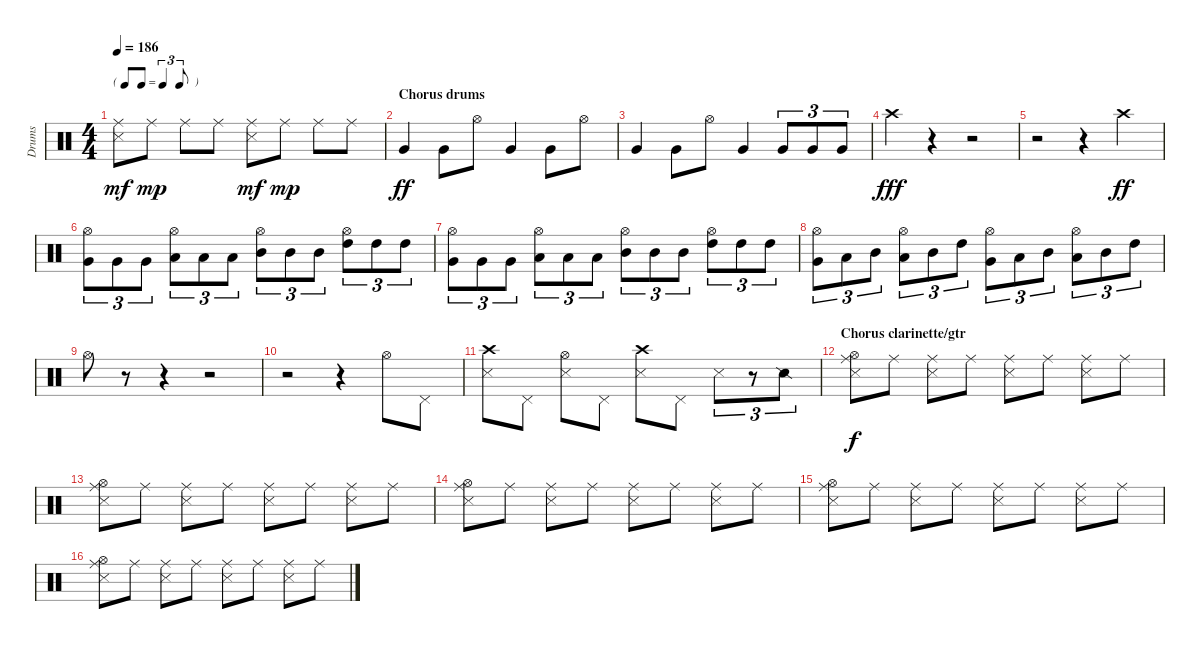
\track ("Drums" "Drums") {instrument percussion}
\staff {score}
\articulation defaults
\ts (4 4)
\tf triplet8th
\tempo 186
\clef neutral
\ks c
("Ride (middle)" "Snare (side stick) 3").8{dy mf} "Ride (middle)".8{dy mp} "Ride (middle)".8 "Ride (middle)".8 ("Ride (middle)" "Snare (side stick) 3").8{dy mf} "Ride (middle)".8{dy mp} "Ride (middle)".8 "Ride (middle)".8 |
\section ("" "Chorus drums")
"Very Low Tom (hit)".4{dy ff} "Very Low Tom (hit)".8 "Hi-Hat (open)".8 "Very Low Tom (hit)".4 "Very Low Tom (hit)".8 "Hi-Hat (open)".8 |
"Very Low Tom (hit)".4 "Very Low Tom (hit)".8 "Hi-Hat (open)".8 "Very Low Tom (hit)".4 "Very Low Tom (hit)".8{tu (3 2)} "Very Low Tom (hit)".8{tu (3 2)} "Very Low Tom (hit)".8{tu (3 2)} |
"Crash high (hit)".4{dy fff} r.4 r.2 |
r.2 r.4 "Crash high (hit)".4{dy ff} |
("Hi-Hat (open)" "Very Low Tom (hit)").8{tu (3 2)} "Very Low Tom (hit)".8{tu (3 2)} "Very Low Tom (hit)".8{tu (3 2)} ("Hi-Hat (open)" "Low Tom (hit)").8{tu (3 2)} "Low Tom (hit)".8{tu (3 2)} "Low Tom (hit)".8{tu (3 2)} ("Hi-Hat (open)" "Mid Tom (hit)").8{tu (3 2)} "Mid Tom (hit)".8{tu (3 2)} "Mid Tom (hit)".8{tu (3 2)} ("Hi-Hat (open)" "High Tom (hit)").8{tu (3 2)} "High Tom (hit)".8{tu (3 2)} "High Tom (hit)".8{tu (3 2)} |
("Hi-Hat (open)" "Very Low Tom (hit)").8{tu (3 2)} "Very Low Tom (hit)".8{tu (3 2)} "Very Low Tom (hit)".8{tu (3 2)} ("Hi-Hat (open)" "Low Tom (hit)").8{tu (3 2)} "Low Tom (hit)".8{tu (3 2)} "Low Tom (hit)".8{tu (3 2)} ("Hi-Hat (open)" "Mid Tom (hit)").8{tu (3 2)} "Mid Tom (hit)".8{tu (3 2)} "Mid Tom (hit)".8{tu (3 2)} ("Hi-Hat (open)" "High Tom (hit)").8{tu (3 2)} "High Tom (hit)".8{tu (3 2)} "High Tom (hit)".8{tu (3 2)} |
("Hi-Hat (open)" "Very Low Tom (hit)").8{tu (3 2)} "Low Tom (hit)".8{tu (3 2)} "Mid Tom (hit)".8{tu (3 2)} ("Hi-Hat (open)" "Low Tom (hit)").8{tu (3 2)} "Mid Tom (hit)".8{tu (3 2)} "High Tom (hit)".8{tu (3 2)} ("Hi-Hat (open)" "Very Low Tom (hit)").8{tu (3 2)} "Low Tom (hit)".8{tu (3 2)} "Mid Tom (hit)".8{tu (3 2)} ("Hi-Hat (open)" "Low Tom (hit)").8{tu (3 2)} "Mid Tom (hit)".8{tu (3 2)} "High Tom (hit)".8{tu (3 2)} |
"Hi-Hat (open)".8 r.8 r.4 r.2 |
r.2 r.4 "Hi-Hat (open)".8 "Pedal Hi-Hat (hit)".8 |
("Crash high (hit)" "Snare (side stick) 3").8 "Pedal Hi-Hat (hit)".8 ("Hi-Hat (open)" "Snare (side stick) 3").8 "Pedal Hi-Hat (hit)".8 ("Crash high (hit)" "Snare (side stick) 3").8 "Pedal Hi-Hat (hit)".8 "Snare (side stick) 3".8{tu (3 2)} r.8{tu (3 2)} "Snare (side stick) 2".8{tu (3 2)} |
\section ("" "Chorus clarinette/gtr")
("Hi-Hat (open)" "Ride (middle)" "Snare (side stick) 3").8{dy f} "Ride (middle)".8 ("Ride (middle)" "Snare (side stick) 3").8 "Ride (middle)".8 ("Ride (middle)" "Snare (side stick) 3").8 "Ride (middle)".8 ("Ride (middle)" "Snare (side stick) 3").8 "Ride (middle)".8 |
("Hi-Hat (open)" "Ride (middle)" "Snare (side stick) 3").8 "Ride (middle)".8 ("Ride (middle)" "Snare (side stick) 3").8 "Ride (middle)".8 ("Ride (middle)" "Snare (side stick) 3").8 "Ride (middle)".8 ("Ride (middle)" "Snare (side stick) 3").8 "Ride (middle)".8 |
("Hi-Hat (open)" "Ride (middle)" "Snare (side stick) 3").8 "Ride (middle)".8 ("Ride (middle)" "Snare (side stick) 3").8 "Ride (middle)".8 ("Ride (middle)" "Snare (side stick) 3").8 "Ride (middle)".8 ("Ride (middle)" "Snare (side stick) 3").8 "Ride (middle)".8 |
("Hi-Hat (open)" "Ride (middle)" "Snare (side stick) 3").8 "Ride (middle)".8 ("Ride (middle)" "Snare (side stick) 3").8 "Ride (middle)".8 ("Ride (middle)" "Snare (side stick) 3").8 "Ride (middle)".8 ("Ride (middle)" "Snare (side stick) 3").8 "Ride (middle)".8 |
("Hi-Hat (open)" "Ride (middle)" "Snare (side stick) 3").8 "Ride (middle)".8 ("Ride (middle)" "Snare (side stick) 3").8 "Ride (middle)".8 ("Ride (middle)" "Snare (side stick) 3").8 "Ride (middle)".8 ("Ride (middle)" "Snare (side stick) 3").8 "Ride (middle)".8
